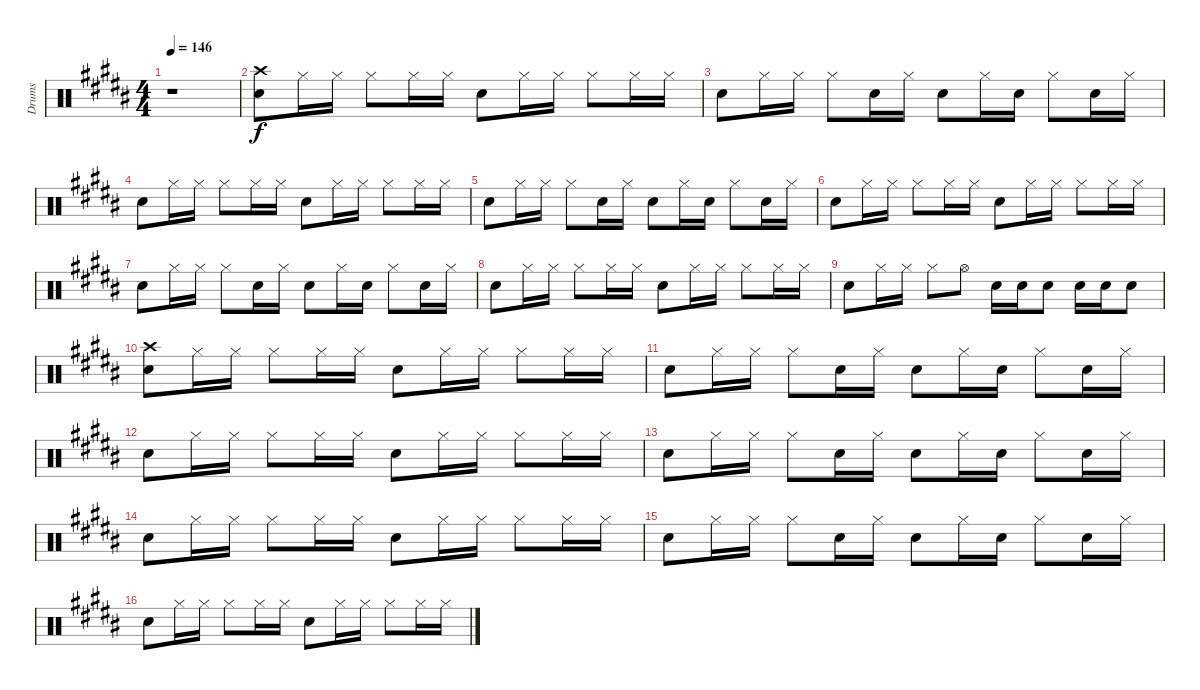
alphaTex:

\track ("Drums" "Drums") {instrument percussion}
\staff {score}
\articulation defaults
\ts (4 4)
\tempo 146
\clef neutral
\ks b
r.1{dy f} |
("Crash high (hit)" "Snare (hit) 2").8 "Hi-Hat (closed)".16 "Hi-Hat (closed)".16 "Hi-Hat (closed)".8 "Hi-Hat (closed)".16 "Hi-Hat (closed)".16 "Snare (hit) 2".8 "Hi-Hat (closed)".16 "Hi-Hat (closed)".16 "Hi-Hat (closed)".8 "Hi-Hat (closed)".16 "Hi-Hat (closed)".16 |
"Snare (hit) 2".8 "Hi-Hat (closed)".16 "Hi-Hat (closed)".16 "Hi-Hat (closed)".8 "Snare (hit) 2".16 "Hi-Hat (closed)".16 "Snare (hit) 2".8 "Hi-Hat (closed)".16 "Snare (hit) 2".16 "Hi-Hat (closed)".8 "Snare (hit) 2".16 "Hi-Hat (closed)".16 |
"Snare (hit) 2".8 "Hi-Hat (closed)".16 "Hi-Hat (closed)".16 "Hi-Hat (closed)".8 "Hi-Hat (closed)".16 "Hi-Hat (closed)".16 "Snare (hit) 2".8 "Hi-Hat (closed)".16 "Hi-Hat (closed)".16 "Hi-Hat (closed)".8 "Hi-Hat (closed)".16 "Hi-Hat (closed)".16 |
"Snare (hit) 2".8 "Hi-Hat (closed)".16 "Hi-Hat (closed)".16 "Hi-Hat (closed)".8 "Snare (hit) 2".16 "Hi-Hat (closed)".16 "Snare (hit) 2".8 "Hi-Hat (closed)".16 "Snare (hit) 2".16 "Hi-Hat (closed)".8 "Snare (hit) 2".16 "Hi-Hat (closed)".16 |
"Snare (hit) 2".8 "Hi-Hat (closed)".16 "Hi-Hat (closed)".16 "Hi-Hat (closed)".8 "Hi-Hat (closed)".16 "Hi-Hat (closed)".16 "Snare (hit) 2".8 "Hi-Hat (closed)".16 "Hi-Hat (closed)".16 "Hi-Hat (closed)".8 "Hi-Hat (closed)".16 "Hi-Hat (closed)".16 |
"Snare (hit) 2".8 "Hi-Hat (closed)".16 "Hi-Hat (closed)".16 "Hi-Hat (closed)".8 "Snare (hit) 2".16 "Hi-Hat (closed)".16 "Snare (hit) 2".8 "Hi-Hat (closed)".16 "Snare (hit) 2".16 "Hi-Hat (closed)".8 "Snare (hit) 2".16 "Hi-Hat (closed)".16 |
"Snare (hit) 2".8 "Hi-Hat (closed)".16 "Hi-Hat (closed)".16 "Hi-Hat (closed)".8 "Hi-Hat (closed)".16 "Hi-Hat (closed)".16 "Snare (hit) 2".8 "Hi-Hat (closed)".16 "Hi-Hat (closed)".16 "Hi-Hat (closed)".8 "Hi-Hat (closed)".16 "Hi-Hat (closed)".16 |
"Snare (hit) 2".8 "Hi-Hat (closed)".16 "Hi-Hat (closed)".16 "Hi-Hat (closed)".8 "Hi-Hat (open)".8 "Snare (hit) 2".16 "Snare (hit) 2".16 "Snare (hit) 2".8 "Snare (hit) 2".16 "Snare (hit) 2".16 "Snare (hit) 2".8 |
("Crash high (hit)" "Snare (hit) 2").8 "Hi-Hat (closed)".16 "Hi-Hat (closed)".16 "Hi-Hat (closed)".8 "Hi-Hat (closed)".16 "Hi-Hat (closed)".16 "Snare (hit) 2".8 "Hi-Hat (closed)".16 "Hi-Hat (closed)".16 "Hi-Hat (closed)".8 "Hi-Hat (closed)".16 "Hi-Hat (closed)".16 |
"Snare (hit) 2".8 "Hi-Hat (closed)".16 "Hi-Hat (closed)".16 "Hi-Hat (closed)".8 "Snare (hit) 2".16 "Hi-Hat (closed)".16 "Snare (hit) 2".8 "Hi-Hat (closed)".16 "Snare (hit) 2".16 "Hi-Hat (closed)".8 "Snare (hit) 2".16 "Hi-Hat (closed)".16 |
"Snare (hit) 2".8 "Hi-Hat (closed)".16 "Hi-Hat (closed)".16 "Hi-Hat (closed)".8 "Hi-Hat (closed)".16 "Hi-Hat (closed)".16 "Snare (hit) 2".8 "Hi-Hat (closed)".16 "Hi-Hat (closed)".16 "Hi-Hat (closed)".8 "Hi-Hat (closed)".16 "Hi-Hat (closed)".16 |
"Snare (hit) 2".8 "Hi-Hat (closed)".16 "Hi-Hat (closed)".16 "Hi-Hat (closed)".8 "Snare (hit) 2".16 "Hi-Hat (closed)".16 "Snare (hit) 2".8 "Hi-Hat (closed)".16 "Snare (hit) 2".16 "Hi-Hat (closed)".8 "Snare (hit) 2".16 "Hi-Hat (closed)".16 |
"Snare (hit) 2".8 "Hi-Hat (closed)".16 "Hi-Hat (closed)".16 "Hi-Hat (closed)".8 "Hi-Hat (closed)".16 "Hi-Hat (closed)".16 "Snare (hit) 2".8 "Hi-Hat (closed)".16 "Hi-Hat (closed)".16 "Hi-Hat (closed)".8 "Hi-Hat (closed)".16 "Hi-Hat (closed)".16 |
"Snare (hit) 2".8 "Hi-Hat (closed)".16 "Hi-Hat (closed)".16 "Hi-Hat (closed)".8 "Snare (hit) 2".16 "Hi-Hat (closed)".16 "Snare (hit) 2".8 "Hi-Hat (closed)".16 "Snare (hit) 2".16 "Hi-Hat (closed)".8 "Snare (hit) 2".16 "Hi-Hat (closed)".16 |
"Snare (hit) 2".8 "Hi-Hat (closed)".16 "Hi-Hat (closed)".16 "Hi-Hat (closed)".8 "Hi-Hat (closed)".16 "Hi-Hat (closed)".16 "Snare (hit) 2".8 "Hi-Hat (closed)".16 "Hi-Hat (closed)".16 "Hi-Hat (closed)".8 "Hi-Hat (closed)".16 "Hi-Hat (closed)".16
